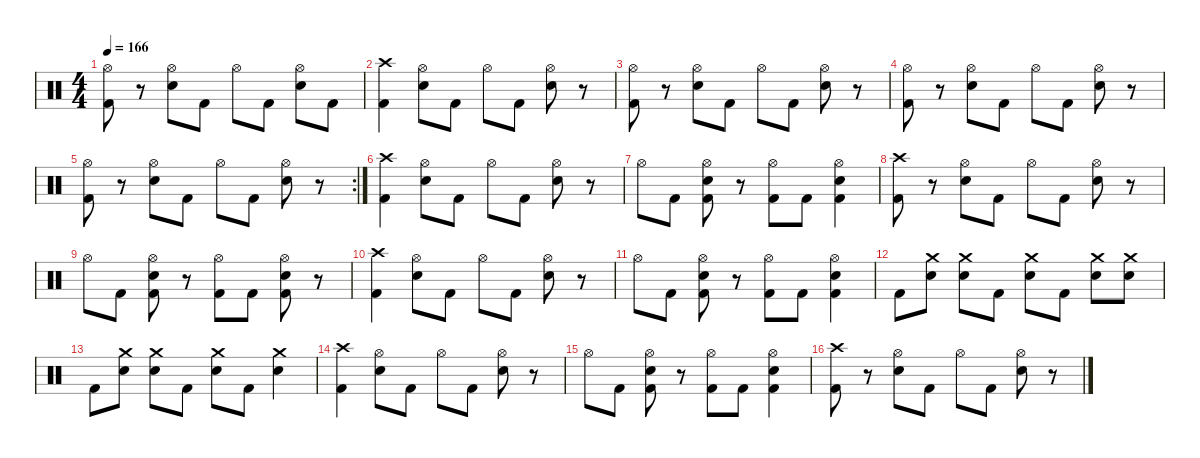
\defaultSystemsLayout 4
\hideDynamics
\bracketExtendMode nobrackets
\singleTrackTrackNamePolicy hidden
\multiTrackTrackNamePolicy hidden
\firstSystemTrackNameMode fullname
\otherSystemsTrackNameOrientation horizontal
\track ("Drums" "drm.") {instrument percussion}
\staff {score}
\articulation defaults
\ts (4 4)
\tempo 166
\clef neutral
\ks c
("Hi-Hat (open)" "Kick (hit) 2").8{dy f beam Down} r.8{beam Down} ("Snare (hit) 2" "Hi-Hat (open)").8{beam Down} "Kick (hit) 2".8{beam Down} "Hi-Hat (open)".8{beam Down} "Kick (hit) 2".8{beam Down} ("Snare (hit) 2" "Hi-Hat (open)").8{beam Down} "Kick (hit) 2".8{beam Down} |
("Kick (hit) 2" "Crash high (hit)").4{beam Down} ("Snare (hit) 2" "Hi-Hat (open)").8{beam Down} "Kick (hit) 2".8{beam Down} "Hi-Hat (open)".8{beam Down} "Kick (hit) 2".8{beam Down} ("Snare (hit) 2" "Hi-Hat (open)").8{beam Down} r.8{beam Down} |
("Hi-Hat (open)" "Kick (hit) 2").8{beam Down} r.8{beam Down} ("Snare (hit) 2" "Hi-Hat (open)").8{beam Down} "Kick (hit) 2".8{beam Down} "Hi-Hat (open)".8{beam Down} "Kick (hit) 2".8{beam Down} ("Snare (hit) 2" "Hi-Hat (open)").8{beam Down} r.8{beam Down} |
("Hi-Hat (open)" "Kick (hit) 2").8{beam Down} r.8{beam Down} ("Snare (hit) 2" "Hi-Hat (open)").8{beam Down} "Kick (hit) 2".8{beam Down} "Hi-Hat (open)".8{beam Down} "Kick (hit) 2".8{beam Down} ("Snare (hit) 2" "Hi-Hat (open)").8{beam Down} r.8{beam Down} |
\rc 2
("Hi-Hat (open)" "Kick (hit) 2").8{beam Down} r.8{beam Down} ("Snare (hit) 2" "Hi-Hat (open)").8{beam Down} "Kick (hit) 2".8{beam Down} "Hi-Hat (open)".8{beam Down} "Kick (hit) 2".8{beam Down} ("Snare (hit) 2" "Hi-Hat (open)").8{beam Down} r.8{beam Down} |
("Kick (hit) 2" "Crash high (hit)").4{beam Down} ("Snare (hit) 2" "Hi-Hat (open)").8{beam Down} "Kick (hit) 2".8{beam Down} "Hi-Hat (open)".8{beam Down} "Kick (hit) 2".8{beam Down} ("Snare (hit) 2" "Hi-Hat (open)").8{beam Down} r.8{beam Down} |
"Hi-Hat (open)".8{beam Down} "Kick (hit) 2".8{beam Down} ("Snare (hit) 2" "Hi-Hat (open)" "Kick (hit) 2").8{beam Down} r.8{beam Down} ("Hi-Hat (open)" "Kick (hit) 2").8{beam Down} "Kick (hit) 2".8{beam Down} ("Snare (hit) 2" "Hi-Hat (open)" "Kick (hit) 2").4{beam Down} |
("Crash high (hit)" "Kick (hit) 2").8{beam Down} r.8{beam Down} ("Snare (hit) 2" "Hi-Hat (open)").8{beam Down} "Kick (hit) 2".8{beam Down} "Hi-Hat (open)".8{beam Down} "Kick (hit) 2".8{beam Down} ("Snare (hit) 2" "Hi-Hat (open)").8{beam Down} r.8{beam Down} |
"Hi-Hat (open)".8{beam Down} "Kick (hit) 2".8{beam Down} ("Snare (hit) 2" "Hi-Hat (open)" "Kick (hit) 2").8{beam Down} r.8{beam Down} ("Hi-Hat (open)" "Kick (hit) 2").8{beam Down} "Kick (hit) 2".8{beam Down} ("Snare (hit) 2" "Hi-Hat (open)" "Kick (hit) 2").8{beam Down} r.8{beam Down} |
("Kick (hit) 2" "Crash high (hit)").4{beam Down} ("Snare (hit) 2" "Hi-Hat (open)").8{beam Down} "Kick (hit) 2".8{beam Down} "Hi-Hat (open)".8{beam Down} "Kick (hit) 2".8{beam Down} ("Snare (hit) 2" "Hi-Hat (open)").8{beam Down} r.8{beam Down} |
"Hi-Hat (open)".8{beam Down} "Kick (hit) 2".8{beam Down} ("Snare (hit) 2" "Hi-Hat (open)" "Kick (hit) 2").8{beam Down} r.8{beam Down} ("Hi-Hat (open)" "Kick (hit) 2").8{beam Down} "Kick (hit) 2".8{beam Down} ("Snare (hit) 2" "Hi-Hat (open)" "Kick (hit) 2").4{beam Down} |
"Kick (hit) 2".8{beam Down} ("Snare (hit) 2" "Crash medium (hit)").8{beam Down} ("Crash medium (hit)" "Snare (hit) 2").8{beam Down} "Kick (hit) 2".8{beam Down} ("Snare (hit) 2" "Crash medium (hit)").8{beam Down} "Kick (hit) 2".8{beam Down} ("Snare (hit) 2" "Crash medium (hit)").8{beam Down} ("Snare (hit) 2" "Crash medium (hit)").8{beam Down} |
"Kick (hit) 2".8{beam Down} ("Snare (hit) 2" "Crash medium (hit)").8{beam Down} ("Snare (hit) 2" "Crash medium (hit)").8{beam Down} "Kick (hit) 2".8{beam Down} ("Snare (hit) 2" "Crash medium (hit)").8{beam Down} "Kick (hit) 2".8{beam Down} ("Snare (hit) 2" "Crash medium (hit)").4{beam Down} |
("Kick (hit) 2" "Crash high (hit)").4{beam Down} ("Snare (hit) 2" "Hi-Hat (open)").8{beam Down} "Kick (hit) 2".8{beam Down} "Hi-Hat (open)".8{beam Down} "Kick (hit) 2".8{beam Down} ("Snare (hit) 2" "Hi-Hat (open)").8{beam Down} r.8{beam Down} |
"Hi-Hat (open)".8{beam Down} "Kick (hit) 2".8{beam Down} ("Snare (hit) 2" "Hi-Hat (open)" "Kick (hit) 2").8{beam Down} r.8{beam Down} ("Hi-Hat (open)" "Kick (hit) 2").8{beam Down} "Kick (hit) 2".8{beam Down} ("Snare (hit) 2" "Hi-Hat (open)" "Kick (hit) 2").4{beam Down} |
("Crash high (hit)" "Kick (hit) 2").8{beam Down} r.8{beam Down} ("Snare (hit) 2" "Hi-Hat (open)").8{beam Down} "Kick (hit) 2".8{beam Down} "Hi-Hat (open)".8{beam Down} "Kick (hit) 2".8{beam Down} ("Snare (hit) 2" "Hi-Hat (open)").8{beam Down} r.8{beam Down}
